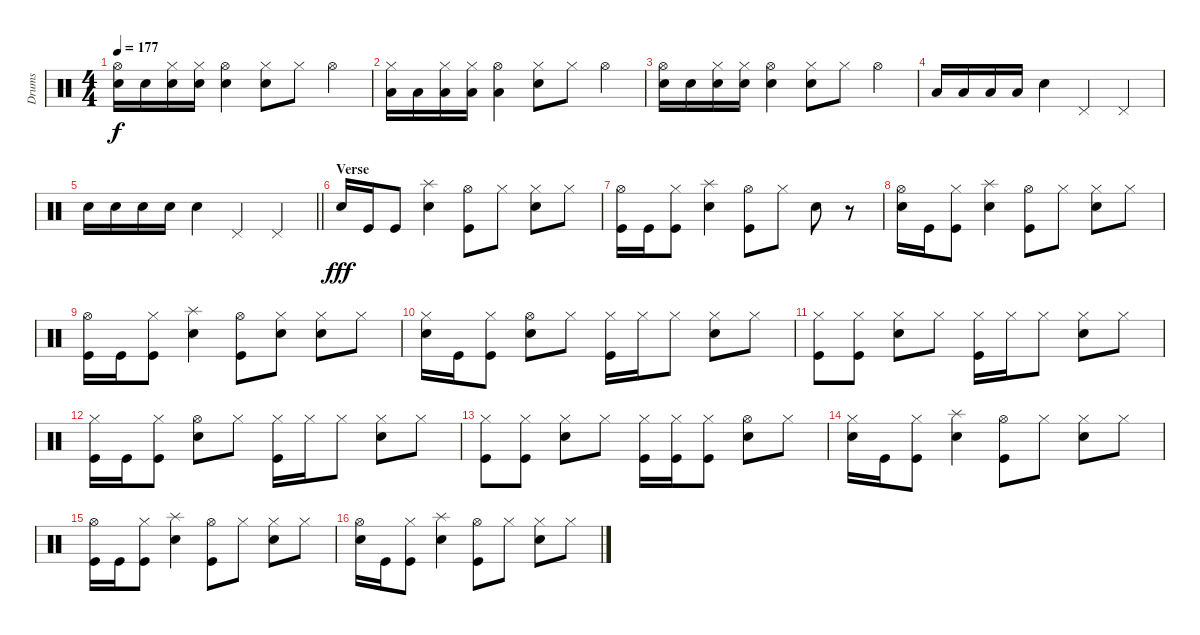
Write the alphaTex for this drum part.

\track ("Drums" "Drums") {instrument percussion}
\staff {score}
\articulation defaults
\ts (4 4)
\tempo 177
\clef neutral
\ks c
("Hi-Hat (open)" "Snare (hit) 2").16{dy f} "Snare (hit) 2".16 ("Hi-Hat (closed)" "Snare (hit) 2").16 ("Hi-Hat (closed)" "Snare (hit) 2").16 ("Hi-Hat (open)" "Snare (hit) 2").4 ("Hi-Hat (closed)" "Snare (hit) 2").8 "Hi-Hat (closed)".8 "Hi-Hat (open)".4 |
("Hi-Hat (closed)" "Low Tom (hit)").16 "Low Tom (hit)".16 ("Hi-Hat (closed)" "Low Tom (hit)").16 ("Hi-Hat (closed)" "Low Tom (hit)").16 ("Hi-Hat (open)" "Low Tom (hit)").4 ("Hi-Hat (closed)" "Snare (hit) 2").8 "Hi-Hat (closed)".8 "Hi-Hat (open)".4 |
("Hi-Hat (open)" "Snare (hit) 2").16 "Snare (hit) 2".16 ("Hi-Hat (closed)" "Snare (hit) 2").16 ("Hi-Hat (closed)" "Snare (hit) 2").16 ("Hi-Hat (open)" "Snare (hit) 2").4 ("Hi-Hat (closed)" "Snare (hit) 2").8 "Hi-Hat (closed)".8 "Hi-Hat (open)".4 |
"Low Tom (hit)".16 "Low Tom (hit)".16 "Low Tom (hit)".16 "Low Tom (hit)".16 "Snare (hit) 2".4 "Pedal Hi-Hat (hit)".4 "Pedal Hi-Hat (hit)".4 |
\barLineRight lightlight "Snare (hit) 2".16 "Snare (hit) 2".16 "Snare (hit) 2".16 "Snare (hit) 2".16 "Snare (hit) 2".4 "Pedal Hi-Hat (hit)".4 "Pedal Hi-Hat (hit)".4
|
\section ("" "Verse")
"Snare (hit) 2".16{dy fff} "Kick (hit)".16 "Kick (hit)".8 ("Splash (hit)" "Snare (hit) 2").4 ("Hi-Hat (open)" "Kick (hit)").8 "Hi-Hat (closed)".8 ("Hi-Hat (closed)" "Snare (hit) 2").8 "Hi-Hat (closed)".8 |
("Hi-Hat (open)" "Kick (hit)").16 "Kick (hit)".16 ("Hi-Hat (closed)" "Kick (hit)").8 ("Splash (hit)" "Snare (hit) 2").4 ("Hi-Hat (open)" "Kick (hit)").8 "Hi-Hat (closed)".8 "Snare (hit) 2".8 r.8 |
("Hi-Hat (open)" "Snare (hit) 2").16 "Kick (hit)".16 ("Hi-Hat (closed)" "Kick (hit)").8 ("Splash (hit)" "Snare (hit) 2").4 ("Hi-Hat (open)" "Kick (hit)").8 "Hi-Hat (closed)".8 ("Hi-Hat (closed)" "Snare (hit) 2").8 "Hi-Hat (closed)".8 |
("Hi-Hat (open)" "Kick (hit)").16 "Kick (hit)".16 ("Hi-Hat (closed)" "Kick (hit)").8 ("Splash (hit)" "Snare (hit) 2").4 ("Hi-Hat (open)" "Kick (hit)").8 ("Hi-Hat (closed)" "Snare (hit) 2").8 ("Hi-Hat (closed)" "Snare (hit) 2").8 "Hi-Hat (closed)".8 |
("Hi-Hat (closed)" "Snare (hit) 2").16 "Kick (hit)".16 ("Hi-Hat (closed)" "Kick (hit)").8 ("Hi-Hat (open)" "Snare (hit) 2").8 "Hi-Hat (closed)".8 ("Hi-Hat (closed)" "Kick (hit)").16 "Hi-Hat (closed)".16 "Hi-Hat (closed)".8 ("Hi-Hat (closed)" "Snare (hit) 2").8 "Hi-Hat (closed)".8 |
("Hi-Hat (closed)" "Kick (hit)").8 ("Hi-Hat (closed)" "Kick (hit)").8 ("Hi-Hat (closed)" "Snare (hit) 2").8 "Hi-Hat (closed)".8 ("Hi-Hat (closed)" "Kick (hit)").16 "Hi-Hat (closed)".16 "Hi-Hat (closed)".8 ("Hi-Hat (closed)" "Snare (hit) 2").8 "Hi-Hat (closed)".8 |
("Hi-Hat (closed)" "Kick (hit)").16 "Kick (hit)".16 ("Hi-Hat (closed)" "Kick (hit)").8 ("Hi-Hat (open)" "Snare (hit) 2").8 "Hi-Hat (closed)".8 ("Hi-Hat (closed)" "Kick (hit)").16 "Hi-Hat (closed)".16 "Hi-Hat (closed)".8 ("Hi-Hat (closed)" "Snare (hit) 2").8 "Hi-Hat (closed)".8 |
("Hi-Hat (closed)" "Kick (hit)").8 ("Hi-Hat (closed)" "Kick (hit)").8 ("Hi-Hat (closed)" "Snare (hit) 2").8 "Hi-Hat (closed)".8 ("Hi-Hat (closed)" "Kick (hit)").16 ("Hi-Hat (closed)" "Kick (hit)").16 ("Hi-Hat (closed)" "Kick (hit)").8 ("Hi-Hat (open)" "Snare (hit) 2").8 "Hi-Hat (closed)".8 |
("Hi-Hat (closed)" "Snare (hit) 2").16 "Kick (hit)".16 ("Hi-Hat (closed)" "Kick (hit)").8 ("Splash (hit)" "Snare (hit) 2").4 ("Hi-Hat (open)" "Kick (hit)").8 "Hi-Hat (closed)".8 ("Hi-Hat (closed)" "Snare (hit) 2").8 "Hi-Hat (closed)".8 |
("Hi-Hat (open)" "Kick (hit)").16 "Kick (hit)".16 ("Hi-Hat (closed)" "Kick (hit)").8 ("Splash (hit)" "Snare (hit) 2").4 ("Hi-Hat (open)" "Kick (hit)").8 "Hi-Hat (closed)".8 ("Hi-Hat (closed)" "Snare (hit) 2").8 "Hi-Hat (closed)".8 |
("Hi-Hat (open)" "Snare (hit) 2").16 "Kick (hit)".16 ("Hi-Hat (closed)" "Kick (hit)").8 ("Splash (hit)" "Snare (hit) 2").4 ("Hi-Hat (open)" "Kick (hit)").8 "Hi-Hat (closed)".8 ("Hi-Hat (closed)" "Snare (hit) 2").8 "Hi-Hat (closed)".8
